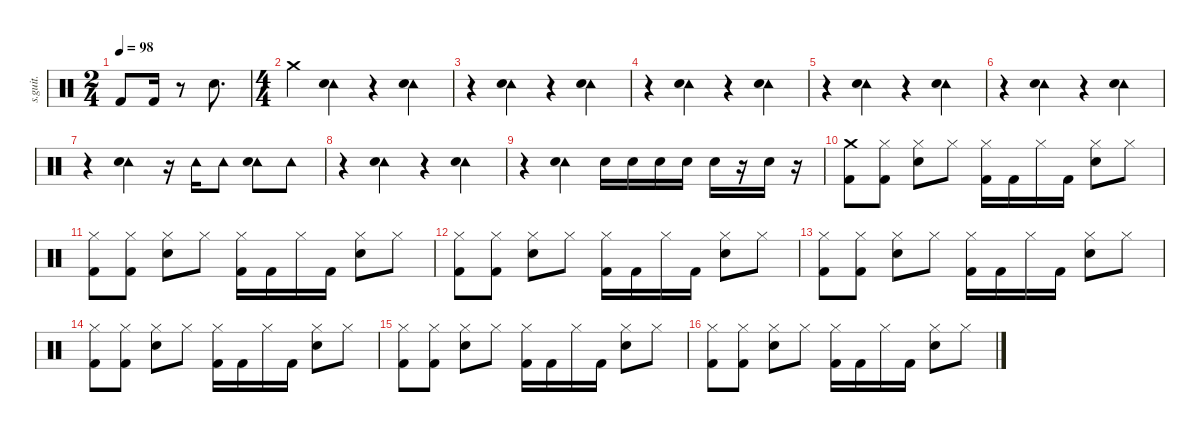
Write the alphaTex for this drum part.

\defaultSystemsLayout 4
\hideDynamics
\bracketExtendMode nobrackets
\track ("" "s.guit.") {instrument percussion}
\staff {score}
\articulation defaults
\ts (2 4)
\beaming (8 2 2 2 2)
\tempo 98
\clef neutral
\ks c "Kick (hit) 2".8{dy ff} "Kick (hit) 2".16
r.8 "Snare (hit) 2".8{d} |
\ts (4 4)
\beaming (8 2 2 2 2)
"Crash medium (hit)".4 ("Tambourine (hit)" "Hand Clap (hit)").4 r.4 ("Tambourine (hit)" "Hand Clap (hit)").4 |
r.4 ("Tambourine (hit)" "Hand Clap (hit)").4 r.4 ("Tambourine (hit)" "Hand Clap (hit)").4 |
r.4 ("Tambourine (hit)" "Hand Clap (hit)").4 r.4 ("Tambourine (hit)" "Hand Clap (hit)").4 |
r.4 ("Tambourine (hit)" "Hand Clap (hit)").4 r.4 ("Tambourine (hit)" "Hand Clap (hit)").4 |
r.4 ("Tambourine (hit)" "Hand Clap (hit)").4 r.4 ("Tambourine (hit)" "Hand Clap (hit)").4 |
r.4 ("Tambourine (hit)" "Hand Clap (hit)").4 r.16 "Tambourine (hit)".16 "Tambourine (hit)".8 ("Tambourine (hit)" "Hand Clap (hit)").8 "Tambourine (hit)".8 |
r.4 ("Tambourine (hit)" "Hand Clap (hit)").4 r.4 ("Tambourine (hit)" "Hand Clap (hit)").4 |
r.4 ("Tambourine (hit)" "Hand Clap (hit)").4 "Hand Clap (hit)".16 "Snare (hit) 2".16 "Snare (hit) 2".16 "Snare (hit) 2".16 "Snare (hit) 2".16 r.16 "Snare (hit) 2".16 r.16 |
("Crash medium (hit)" "Kick (hit) 2").8 ("Hi-Hat (closed)" "Kick (hit) 2").8 ("Hi-Hat (closed)" "Snare (hit) 2").8 "Hi-Hat (closed)".8 ("Hi-Hat (closed)" "Kick (hit) 2").16 "Kick (hit) 2".16 "Hi-Hat (closed)".16 "Kick (hit) 2".16 ("Hi-Hat (closed)" "Snare (hit) 2").8 "Hi-Hat (closed)".8 |
("Hi-Hat (closed)" "Kick (hit) 2").8 ("Hi-Hat (closed)" "Kick (hit) 2").8 ("Hi-Hat (closed)" "Snare (hit) 2").8 "Hi-Hat (closed)".8 ("Hi-Hat (closed)" "Kick (hit) 2").16 "Kick (hit) 2".16 "Hi-Hat (closed)".16 "Kick (hit) 2".16 ("Hi-Hat (closed)" "Snare (hit) 2").8 "Hi-Hat (closed)".8 |
("Hi-Hat (closed)" "Kick (hit) 2").8 ("Hi-Hat (closed)" "Kick (hit) 2").8 ("Hi-Hat (closed)" "Snare (hit) 2").8 "Hi-Hat (closed)".8 ("Hi-Hat (closed)" "Kick (hit) 2").16 "Kick (hit) 2".16 "Hi-Hat (closed)".16 "Kick (hit) 2".16 ("Hi-Hat (closed)" "Snare (hit) 2").8 "Hi-Hat (closed)".8 |
("Hi-Hat (closed)" "Kick (hit) 2").8 ("Hi-Hat (closed)" "Kick (hit) 2").8 ("Hi-Hat (closed)" "Snare (hit) 2").8 "Hi-Hat (closed)".8 ("Hi-Hat (closed)" "Kick (hit) 2").16 "Kick (hit) 2".16 "Hi-Hat (closed)".16 "Kick (hit) 2".16 ("Hi-Hat (closed)" "Snare (hit) 2").8 "Hi-Hat (closed)".8 |
("Hi-Hat (closed)" "Kick (hit) 2").8 ("Hi-Hat (closed)" "Kick (hit) 2").8 ("Hi-Hat (closed)" "Snare (hit) 2").8 "Hi-Hat (closed)".8 ("Hi-Hat (closed)" "Kick (hit) 2").16 "Kick (hit) 2".16 "Hi-Hat (closed)".16 "Kick (hit) 2".16 ("Hi-Hat (closed)" "Snare (hit) 2").8 "Hi-Hat (closed)".8 |
("Hi-Hat (closed)" "Kick (hit) 2").8 ("Hi-Hat (closed)" "Kick (hit) 2").8 ("Hi-Hat (closed)" "Snare (hit) 2").8 "Hi-Hat (closed)".8 ("Hi-Hat (closed)" "Kick (hit) 2").16 "Kick (hit) 2".16 "Hi-Hat (closed)".16 "Kick (hit) 2".16 ("Hi-Hat (closed)" "Snare (hit) 2").8 "Hi-Hat (closed)".8 |
("Hi-Hat (closed)" "Kick (hit) 2").8 ("Hi-Hat (closed)" "Kick (hit) 2").8 ("Hi-Hat (closed)" "Snare (hit) 2").8 "Hi-Hat (closed)".8 ("Hi-Hat (closed)" "Kick (hit) 2").16 "Kick (hit) 2".16 "Hi-Hat (closed)".16 "Kick (hit) 2".16 ("Hi-Hat (closed)" "Snare (hit) 2").8 "Hi-Hat (closed)".8
